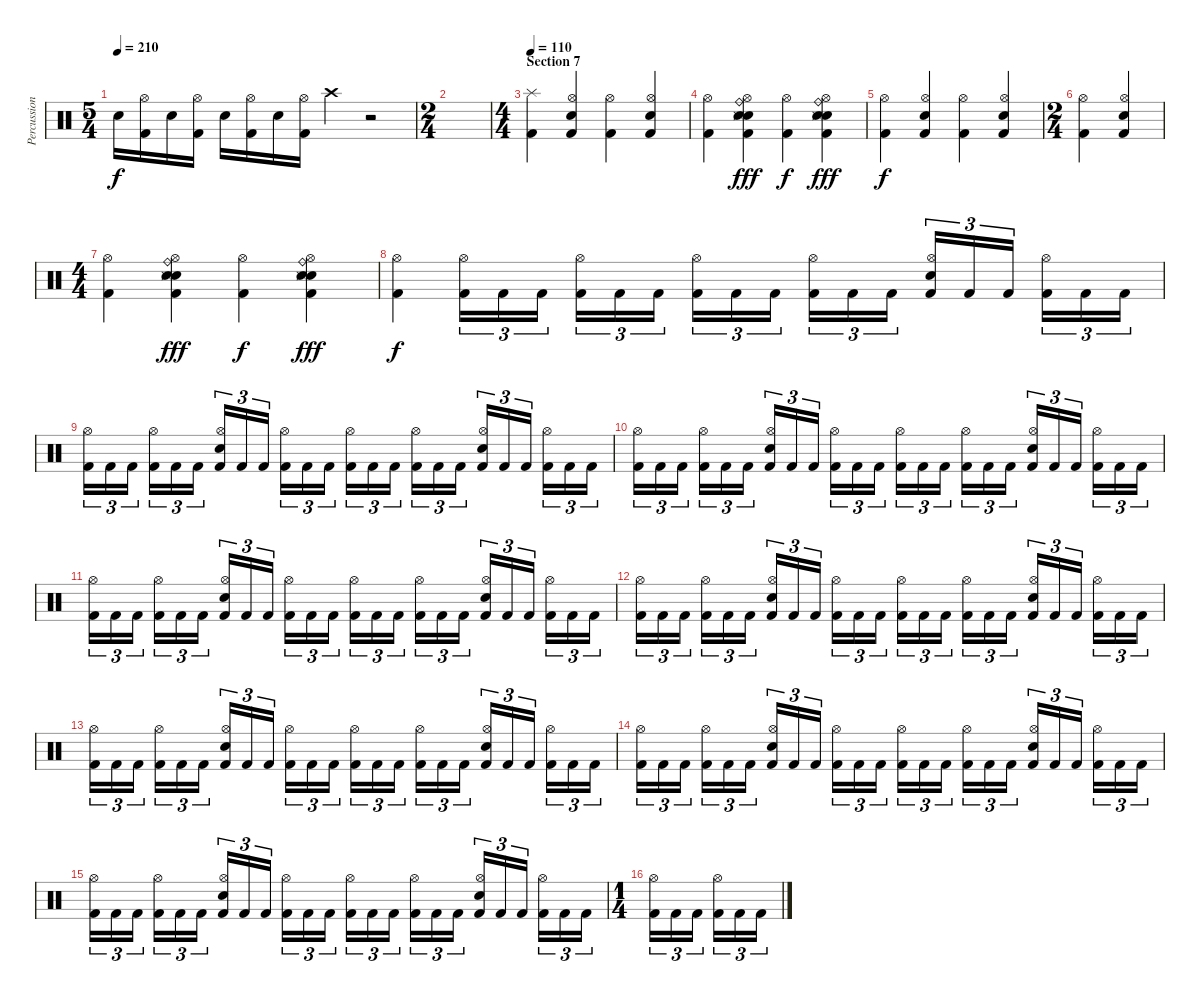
\track ("Percussion" "Percussion") {instrument percussion}
\staff {score}
\articulation defaults
\ts (5 4)
\tempo 210
\clef neutral
\ks c "Electric Snare (hit)".16{dy f}
("Hi-Hat (open)" "Kick (hit) 2").16 "Electric Snare (hit)".16 ("Hi-Hat (open)" "Kick (hit) 2").16 "Electric Snare (hit)".16 ("Hi-Hat (open)" "Kick (hit) 2").16 "Electric Snare (hit)".16 ("Hi-Hat (open)" "Kick (hit) 2").16 "Crash high (hit)".4 r.2 |
\ts (2 4)
|
\ts (4 4)
\section ("" "Section 7")
\tempo 110
("Splash (hit)" "Kick (hit) 2").4 ("Hi-Hat (open)" "Electric Snare (hit)" "Kick (hit) 2").4 ("Hi-Hat (open)" "Kick (hit) 2").4 ("Hi-Hat (open)" "Electric Snare (hit)" "Kick (hit) 2").4 |
("Hi-Hat (open)" "Kick (hit) 2").4 ("Ride (bell)" "Metronome (bell)" "Electric Snare (hit)" "Hi-Hat (open)" "Metronome (hit)" "Kick (hit) 2").4{dy fff} ("Hi-Hat (open)" "Kick (hit) 2").4{dy f} ("Ride (bell)" "Metronome (bell)" "Hi-Hat (open)" "Electric Snare (hit)" "Metronome (hit)" "Kick (hit) 2").4{dy fff} |
("Hi-Hat (open)" "Kick (hit) 2").4{dy f} ("Hi-Hat (open)" "Electric Snare (hit)" "Kick (hit) 2").4 ("Hi-Hat (open)" "Kick (hit) 2").4 ("Hi-Hat (open)" "Electric Snare (hit)" "Kick (hit) 2").4 |
\ts (2 4)
("Hi-Hat (open)" "Kick (hit) 2").4 ("Hi-Hat (open)" "Electric Snare (hit)" "Kick (hit) 2").4 |
\ts (4 4)
("Hi-Hat (open)" "Kick (hit) 2").4 ("Ride (bell)" "Metronome (bell)" "Hi-Hat (open)" "Electric Snare (hit)" "Metronome (hit)" "Kick (hit) 2").4{dy fff} ("Hi-Hat (open)" "Kick (hit) 2").4{dy f} ("Ride (bell)" "Metronome (bell)" "Hi-Hat (open)" "Electric Snare (hit)" "Metronome (hit)" "Kick (hit) 2").4{dy fff} |
("Hi-Hat (open)" "Kick (hit) 2").4{dy f} ("Hi-Hat (open)" "Kick (hit) 2").16{tu (3 2)} "Kick (hit) 2".16{tu (3 2)} "Kick (hit) 2".16{tu (3 2)} ("Hi-Hat (open)" "Kick (hit) 2").16{tu (3 2)} "Kick (hit) 2".16{tu (3 2)} "Kick (hit) 2".16{tu (3 2)} ("Hi-Hat (open)" "Kick (hit) 2").16{tu (3 2)} "Kick (hit) 2".16{tu (3 2)} "Kick (hit) 2".16{tu (3 2)} ("Hi-Hat (open)" "Kick (hit) 2").16{tu (3 2)} "Kick (hit) 2".16{tu (3 2)} "Kick (hit) 2".16{tu (3 2)} ("Hi-Hat (open)" "Electric Snare (hit)" "Kick (hit) 2").16{tu (3 2)} "Kick (hit) 2".16{tu (3 2)} "Kick (hit) 2".16{tu (3 2)} ("Hi-Hat (open)" "Kick (hit) 2").16{tu (3 2)} "Kick (hit) 2".16{tu (3 2)} "Kick (hit) 2".16{tu (3 2)} |
("Hi-Hat (open)" "Kick (hit) 2").16{tu (3 2)} "Kick (hit) 2".16{tu (3 2)} "Kick (hit) 2".16{tu (3 2)} ("Hi-Hat (open)" "Kick (hit) 2").16{tu (3 2)} "Kick (hit) 2".16{tu (3 2)} "Kick (hit) 2".16{tu (3 2)} ("Hi-Hat (open)" "Electric Snare (hit)" "Kick (hit) 2").16{tu (3 2)} "Kick (hit) 2".16{tu (3 2)} "Kick (hit) 2".16{tu (3 2)} ("Hi-Hat (open)" "Kick (hit) 2").16{tu (3 2)} "Kick (hit) 2".16{tu (3 2)} "Kick (hit) 2".16{tu (3 2)} ("Hi-Hat (open)" "Kick (hit) 2").16{tu (3 2)} "Kick (hit) 2".16{tu (3 2)} "Kick (hit) 2".16{tu (3 2)} ("Hi-Hat (open)" "Kick (hit) 2").16{tu (3 2)} "Kick (hit) 2".16{tu (3 2)} "Kick (hit) 2".16{tu (3 2)} ("Hi-Hat (open)" "Electric Snare (hit)" "Kick (hit) 2").16{tu (3 2)} "Kick (hit) 2".16{tu (3 2)} "Kick (hit) 2".16{tu (3 2)} ("Hi-Hat (open)" "Kick (hit) 2").16{tu (3 2)} "Kick (hit) 2".16{tu (3 2)} "Kick (hit) 2".16{tu (3 2)} |
("Hi-Hat (open)" "Kick (hit) 2").16{tu (3 2)} "Kick (hit) 2".16{tu (3 2)} "Kick (hit) 2".16{tu (3 2)} ("Hi-Hat (open)" "Kick (hit) 2").16{tu (3 2)} "Kick (hit) 2".16{tu (3 2)} "Kick (hit) 2".16{tu (3 2)} ("Hi-Hat (open)" "Electric Snare (hit)" "Kick (hit) 2").16{tu (3 2)} "Kick (hit) 2".16{tu (3 2)} "Kick (hit) 2".16{tu (3 2)} ("Hi-Hat (open)" "Kick (hit) 2").16{tu (3 2)} "Kick (hit) 2".16{tu (3 2)} "Kick (hit) 2".16{tu (3 2)} ("Hi-Hat (open)" "Kick (hit) 2").16{tu (3 2)} "Kick (hit) 2".16{tu (3 2)} "Kick (hit) 2".16{tu (3 2)} ("Hi-Hat (open)" "Kick (hit) 2").16{tu (3 2)} "Kick (hit) 2".16{tu (3 2)} "Kick (hit) 2".16{tu (3 2)} ("Hi-Hat (open)" "Electric Snare (hit)" "Kick (hit) 2").16{tu (3 2)} "Kick (hit) 2".16{tu (3 2)} "Kick (hit) 2".16{tu (3 2)} ("Hi-Hat (open)" "Kick (hit) 2").16{tu (3 2)} "Kick (hit) 2".16{tu (3 2)} "Kick (hit) 2".16{tu (3 2)} |
("Hi-Hat (open)" "Kick (hit) 2").16{tu (3 2)} "Kick (hit) 2".16{tu (3 2)} "Kick (hit) 2".16{tu (3 2)} ("Hi-Hat (open)" "Kick (hit) 2").16{tu (3 2)} "Kick (hit) 2".16{tu (3 2)} "Kick (hit) 2".16{tu (3 2)} ("Hi-Hat (open)" "Electric Snare (hit)" "Kick (hit) 2").16{tu (3 2)} "Kick (hit) 2".16{tu (3 2)} "Kick (hit) 2".16{tu (3 2)} ("Hi-Hat (open)" "Kick (hit) 2").16{tu (3 2)} "Kick (hit) 2".16{tu (3 2)} "Kick (hit) 2".16{tu (3 2)} ("Hi-Hat (open)" "Kick (hit) 2").16{tu (3 2)} "Kick (hit) 2".16{tu (3 2)} "Kick (hit) 2".16{tu (3 2)} ("Hi-Hat (open)" "Kick (hit) 2").16{tu (3 2)} "Kick (hit) 2".16{tu (3 2)} "Kick (hit) 2".16{tu (3 2)} ("Hi-Hat (open)" "Electric Snare (hit)" "Kick (hit) 2").16{tu (3 2)} "Kick (hit) 2".16{tu (3 2)} "Kick (hit) 2".16{tu (3 2)} ("Hi-Hat (open)" "Kick (hit) 2").16{tu (3 2)} "Kick (hit) 2".16{tu (3 2)} "Kick (hit) 2".16{tu (3 2)} |
("Hi-Hat (open)" "Kick (hit) 2").16{tu (3 2)} "Kick (hit) 2".16{tu (3 2)} "Kick (hit) 2".16{tu (3 2)} ("Hi-Hat (open)" "Kick (hit) 2").16{tu (3 2)} "Kick (hit) 2".16{tu (3 2)} "Kick (hit) 2".16{tu (3 2)} ("Hi-Hat (open)" "Electric Snare (hit)" "Kick (hit) 2").16{tu (3 2)} "Kick (hit) 2".16{tu (3 2)} "Kick (hit) 2".16{tu (3 2)} ("Hi-Hat (open)" "Kick (hit) 2").16{tu (3 2)} "Kick (hit) 2".16{tu (3 2)} "Kick (hit) 2".16{tu (3 2)} ("Hi-Hat (open)" "Kick (hit) 2").16{tu (3 2)} "Kick (hit) 2".16{tu (3 2)} "Kick (hit) 2".16{tu (3 2)} ("Hi-Hat (open)" "Kick (hit) 2").16{tu (3 2)} "Kick (hit) 2".16{tu (3 2)} "Kick (hit) 2".16{tu (3 2)} ("Hi-Hat (open)" "Electric Snare (hit)" "Kick (hit) 2").16{tu (3 2)} "Kick (hit) 2".16{tu (3 2)} "Kick (hit) 2".16{tu (3 2)} ("Hi-Hat (open)" "Kick (hit) 2").16{tu (3 2)} "Kick (hit) 2".16{tu (3 2)} "Kick (hit) 2".16{tu (3 2)} |
("Hi-Hat (open)" "Kick (hit) 2").16{tu (3 2)} "Kick (hit) 2".16{tu (3 2)} "Kick (hit) 2".16{tu (3 2)} ("Hi-Hat (open)" "Kick (hit) 2").16{tu (3 2)} "Kick (hit) 2".16{tu (3 2)} "Kick (hit) 2".16{tu (3 2)} ("Hi-Hat (open)" "Electric Snare (hit)" "Kick (hit) 2").16{tu (3 2)} "Kick (hit) 2".16{tu (3 2)} "Kick (hit) 2".16{tu (3 2)} ("Hi-Hat (open)" "Kick (hit) 2").16{tu (3 2)} "Kick (hit) 2".16{tu (3 2)} "Kick (hit) 2".16{tu (3 2)} ("Hi-Hat (open)" "Kick (hit) 2").16{tu (3 2)} "Kick (hit) 2".16{tu (3 2)} "Kick (hit) 2".16{tu (3 2)} ("Hi-Hat (open)" "Kick (hit) 2").16{tu (3 2)} "Kick (hit) 2".16{tu (3 2)} "Kick (hit) 2".16{tu (3 2)} ("Hi-Hat (open)" "Electric Snare (hit)" "Kick (hit) 2").16{tu (3 2)} "Kick (hit) 2".16{tu (3 2)} "Kick (hit) 2".16{tu (3 2)} ("Hi-Hat (open)" "Kick (hit) 2").16{tu (3 2)} "Kick (hit) 2".16{tu (3 2)} "Kick (hit) 2".16{tu (3 2)} |
("Hi-Hat (open)" "Kick (hit) 2").16{tu (3 2)} "Kick (hit) 2".16{tu (3 2)} "Kick (hit) 2".16{tu (3 2)} ("Hi-Hat (open)" "Kick (hit) 2").16{tu (3 2)} "Kick (hit) 2".16{tu (3 2)} "Kick (hit) 2".16{tu (3 2)} ("Hi-Hat (open)" "Electric Snare (hit)" "Kick (hit) 2").16{tu (3 2)} "Kick (hit) 2".16{tu (3 2)} "Kick (hit) 2".16{tu (3 2)} ("Hi-Hat (open)" "Kick (hit) 2").16{tu (3 2)} "Kick (hit) 2".16{tu (3 2)} "Kick (hit) 2".16{tu (3 2)} ("Hi-Hat (open)" "Kick (hit) 2").16{tu (3 2)} "Kick (hit) 2".16{tu (3 2)} "Kick (hit) 2".16{tu (3 2)} ("Hi-Hat (open)" "Kick (hit) 2").16{tu (3 2)} "Kick (hit) 2".16{tu (3 2)} "Kick (hit) 2".16{tu (3 2)} ("Hi-Hat (open)" "Electric Snare (hit)" "Kick (hit) 2").16{tu (3 2)} "Kick (hit) 2".16{tu (3 2)} "Kick (hit) 2".16{tu (3 2)} ("Hi-Hat (open)" "Kick (hit) 2").16{tu (3 2)} "Kick (hit) 2".16{tu (3 2)} "Kick (hit) 2".16{tu (3 2)} |
("Hi-Hat (open)" "Kick (hit) 2").16{tu (3 2)} "Kick (hit) 2".16{tu (3 2)} "Kick (hit) 2".16{tu (3 2)} ("Hi-Hat (open)" "Kick (hit) 2").16{tu (3 2)} "Kick (hit) 2".16{tu (3 2)} "Kick (hit) 2".16{tu (3 2)} ("Hi-Hat (open)" "Electric Snare (hit)" "Kick (hit) 2").16{tu (3 2)} "Kick (hit) 2".16{tu (3 2)} "Kick (hit) 2".16{tu (3 2)} ("Hi-Hat (open)" "Kick (hit) 2").16{tu (3 2)} "Kick (hit) 2".16{tu (3 2)} "Kick (hit) 2".16{tu (3 2)} ("Hi-Hat (open)" "Kick (hit) 2").16{tu (3 2)} "Kick (hit) 2".16{tu (3 2)} "Kick (hit) 2".16{tu (3 2)} ("Hi-Hat (open)" "Kick (hit) 2").16{tu (3 2)} "Kick (hit) 2".16{tu (3 2)} "Kick (hit) 2".16{tu (3 2)} ("Hi-Hat (open)" "Electric Snare (hit)" "Kick (hit) 2").16{tu (3 2)} "Kick (hit) 2".16{tu (3 2)} "Kick (hit) 2".16{tu (3 2)} ("Hi-Hat (open)" "Kick (hit) 2").16{tu (3 2)} "Kick (hit) 2".16{tu (3 2)} "Kick (hit) 2".16{tu (3 2)} |
\ts (1 4)
("Hi-Hat (open)" "Kick (hit) 2").16{tu (3 2)} "Kick (hit) 2".16{tu (3 2)} "Kick (hit) 2".16{tu (3 2)} ("Hi-Hat (open)" "Kick (hit) 2").16{tu (3 2)} "Kick (hit) 2".16{tu (3 2)} "Kick (hit) 2".16{tu (3 2)}
